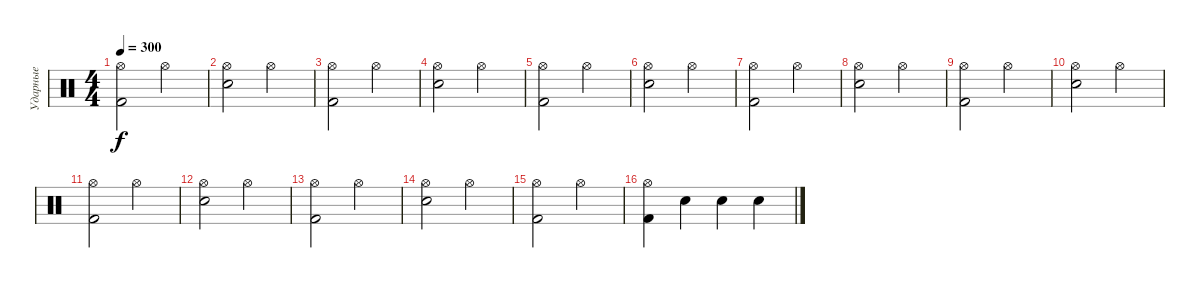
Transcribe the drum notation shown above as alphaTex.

\track ("Ударные" "Ударные") {instrument percussion}
\staff {score}
\articulation defaults
\ts (4 4)
\tempo 300
\clef neutral
\ks c
("Hi-Hat (open)" "Kick (hit) 2").2{dy f} "Hi-Hat (open)".2 |
("Hi-Hat (open)" "Snare (hit) 2").2 "Hi-Hat (open)".2 |
("Hi-Hat (open)" "Kick (hit) 2").2 "Hi-Hat (open)".2 |
("Hi-Hat (open)" "Snare (hit) 2").2 "Hi-Hat (open)".2 |
("Hi-Hat (open)" "Kick (hit) 2").2 "Hi-Hat (open)".2 |
("Hi-Hat (open)" "Snare (hit) 2").2 "Hi-Hat (open)".2 |
("Hi-Hat (open)" "Kick (hit) 2").2 "Hi-Hat (open)".2 |
("Hi-Hat (open)" "Snare (hit) 2").2 "Hi-Hat (open)".2 |
("Hi-Hat (open)" "Kick (hit) 2").2 "Hi-Hat (open)".2 |
("Hi-Hat (open)" "Snare (hit) 2").2 "Hi-Hat (open)".2 |
("Hi-Hat (open)" "Kick (hit) 2").2 "Hi-Hat (open)".2 |
("Hi-Hat (open)" "Snare (hit) 2").2 "Hi-Hat (open)".2 |
("Hi-Hat (open)" "Kick (hit) 2").2 "Hi-Hat (open)".2 |
("Hi-Hat (open)" "Snare (hit) 2").2 "Hi-Hat (open)".2 |
("Hi-Hat (open)" "Kick (hit) 2").2 "Hi-Hat (open)".2 |
("Hi-Hat (open)" "Kick (hit) 2").4 "Snare (hit) 2".4 "Snare (hit) 2".4 "Snare (hit) 2".4
